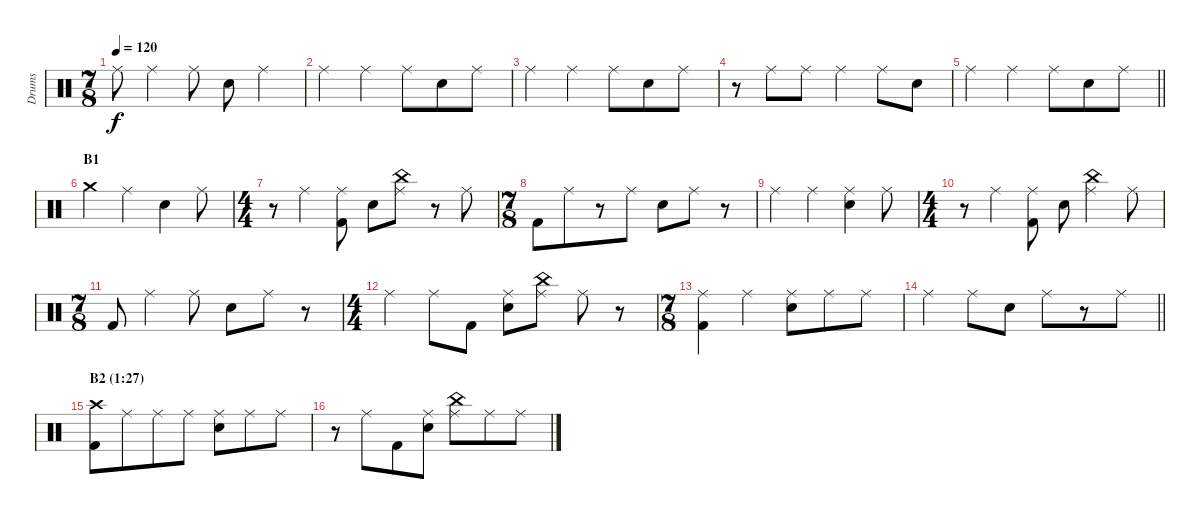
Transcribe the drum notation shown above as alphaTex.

\track ("Drums" "Drums") {instrument percussion}
\staff {score}
\articulation defaults
\ts (7 8)
\tempo 120
\clef neutral
\ks c "Ride (middle)".8{dy f} "Ride (middle)".4 "Ride (middle)".8 "Snare (hit) 2".8 "Ride (middle)".4
|
"Ride (middle)".4 "Ride (middle)".4 "Ride (middle)".8 "Snare (hit) 2".8 "Ride (middle)".8 |
"Ride (middle)".4 "Ride (middle)".4 "Ride (middle)".8 "Snare (hit) 2".8 "Ride (middle)".8 |
r.8 "Ride (middle)".8 "Ride (middle)".8 "Ride (middle)".4 "Ride (middle)".8 "Snare (hit) 2".8 |
\barLineRight lightlight "Ride (middle)".4 "Ride (middle)".4 "Ride (middle)".8 "Snare (hit) 2".8 "Ride (middle)".8
|
\section ("" "B1")
"Crash medium (hit)".4 "Ride (middle)".4 "Snare (hit) 2".4 "Ride (middle)".8 |
\ts (4 4)
r.8 "Ride (middle)".4 ("Ride (middle)" "Kick (hit) 2").8 "Snare (hit) 2".8 ("Ride (middle)" "China (hit)").8 r.8 "Ride (middle)".8 |
\ts (7 8)
"Kick (hit) 2".8 "Ride (middle)".8 r.8 "Ride (middle)".8 "Snare (hit) 2".8 "Ride (middle)".8 r.8 |
"Ride (middle)".4 "Ride (middle)".4 ("Ride (middle)" "Snare (hit) 2").4 "Ride (middle)".8 |
\ts (4 4)
r.8 "Ride (middle)".4 ("Ride (middle)" "Kick (hit) 2").8 "Snare (hit) 2".8 ("Ride (middle)" "China (hit)").4 "Ride (middle)".8 |
\ts (7 8)
"Kick (hit) 2".8 "Ride (middle)".4 "Ride (middle)".8 "Snare (hit) 2".8 "Ride (middle)".8 r.8 |
\ts (4 4)
"Ride (middle)".4 "Ride (middle)".8 "Kick (hit) 2".8 ("Ride (middle)" "Snare (hit) 2").8 ("Ride (middle)" "China (hit)").8 "Ride (middle)".8 r.8 |
\ts (7 8)
("Ride (middle)" "Kick (hit) 2").4 "Ride (middle)".4 ("Ride (middle)" "Snare (hit) 2").8 "Ride (middle)".8 "Ride (middle)".8 |
\barLineRight lightlight "Ride (middle)".4 "Ride (middle)".8 "Snare (hit) 2".8 "Ride (middle)".8
r.8 "Ride (middle)".8 |
\section ("" "B2 (1:27)")
("Crash high (hit)" "Kick (hit) 2").8 "Ride (middle)".8 "Ride (middle)".8 "Ride (middle)".8 ("Ride (middle)" "Snare (hit) 2").8 "Ride (middle)".8 "Ride (middle)".8 |
r.8 "Ride (middle)".8 "Kick (hit) 2".8 ("Ride (middle)" "Snare (hit) 2").8 ("Ride (middle)" "China (hit)").8 "Ride (middle)".8 "Ride (middle)".8
